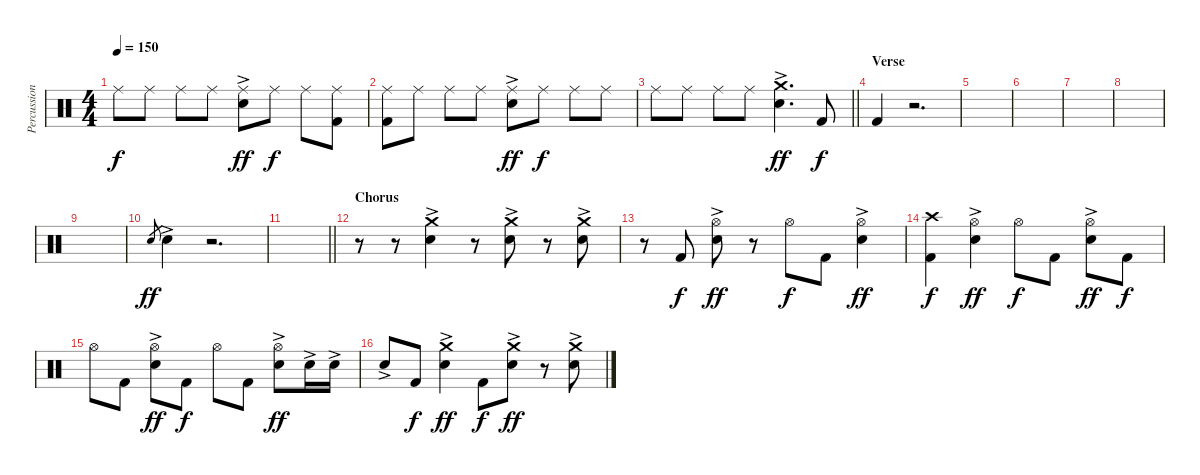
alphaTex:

\track ("Percussion" "Percussion") {instrument percussion}
\staff {score}
\articulation defaults
\ts (4 4)
\tempo 150
\clef neutral
\ks c "Ride (middle)".8{dy f} "Ride (middle)".8 "Ride (middle)".8 "Ride (middle)".8
("Ride (middle)" "Electric Snare (hit)"{ac}).8{dy ff} "Ride (middle)".8{dy f} "Ride (middle)".8 ("Ride (middle)" "Kick (hit) 2").8 |
("Ride (middle)" "Kick (hit) 2").8 "Ride (middle)".8 "Ride (middle)".8 "Ride (middle)".8 ("Ride (middle)" "Electric Snare (hit)"{ac}).8{dy ff} "Ride (middle)".8{dy f} "Ride (middle)".8 "Ride (middle)".8 |
\barLineRight lightlight "Ride (middle)".8 "Ride (middle)".8 "Ride (middle)".8 "Ride (middle)".8
("Crash medium (hit)" "Electric Snare (hit)"{ac}).4{d dy ff} "Kick (hit) 2".8{dy f} |
\section ("" "Verse")
"Kick (hit) 2".4 r.2{d} |
|
|
|
|
|
"Electric Snare (hit)".8{gr dy ff} "Electric Snare (hit)"{ac}.4 r.2{d} |
\barLineRight lightlight
|
\section ("" "Chorus")
r.8 r.8 ("Crash medium (hit)" "Electric Snare (hit)"{ac}).4 r.8 ("Crash medium (hit)" "Electric Snare (hit)"{ac}).8 r.8 ("Crash medium (hit)" "Electric Snare (hit)"{ac}).8 |
r.8 "Kick (hit) 2".8{dy f} ("Hi-Hat (open)" "Electric Snare (hit)"{ac}).8{dy ff} r.8 "Hi-Hat (open)".8{dy f} "Kick (hit) 2".8 ("Hi-Hat (open)" "Electric Snare (hit)"{ac}).4{dy ff} |
("Crash high (hit)" "Kick (hit) 2").4{dy f} ("Hi-Hat (open)" "Electric Snare (hit)"{ac}).4{dy ff} "Hi-Hat (open)".8{dy f} "Kick (hit) 2".8 ("Hi-Hat (open)" "Electric Snare (hit)"{ac}).8{dy ff} "Kick (hit) 2".8{dy f} |
"Hi-Hat (open)".8 "Kick (hit) 2".8 ("Hi-Hat (open)" "Electric Snare (hit)"{ac}).8{dy ff} "Kick (hit) 2".8{dy f} "Hi-Hat (open)".8 "Kick (hit) 2".8 ("Hi-Hat (open)" "Electric Snare (hit)"{ac}).8{dy ff} "Electric Snare (hit)"{ac}.16 "Electric Snare (hit)"{ac}.16 |
"Electric Snare (hit)"{ac}.8 "Kick (hit) 2".8{dy f} ("Crash medium (hit)" "Electric Snare (hit)"{ac}).4{dy ff} "Kick (hit) 2".8{dy f} ("Crash medium (hit)" "Electric Snare (hit)"{ac}).8{dy ff} r.8 ("Crash medium (hit)" "Electric Snare (hit)"{ac}).8
